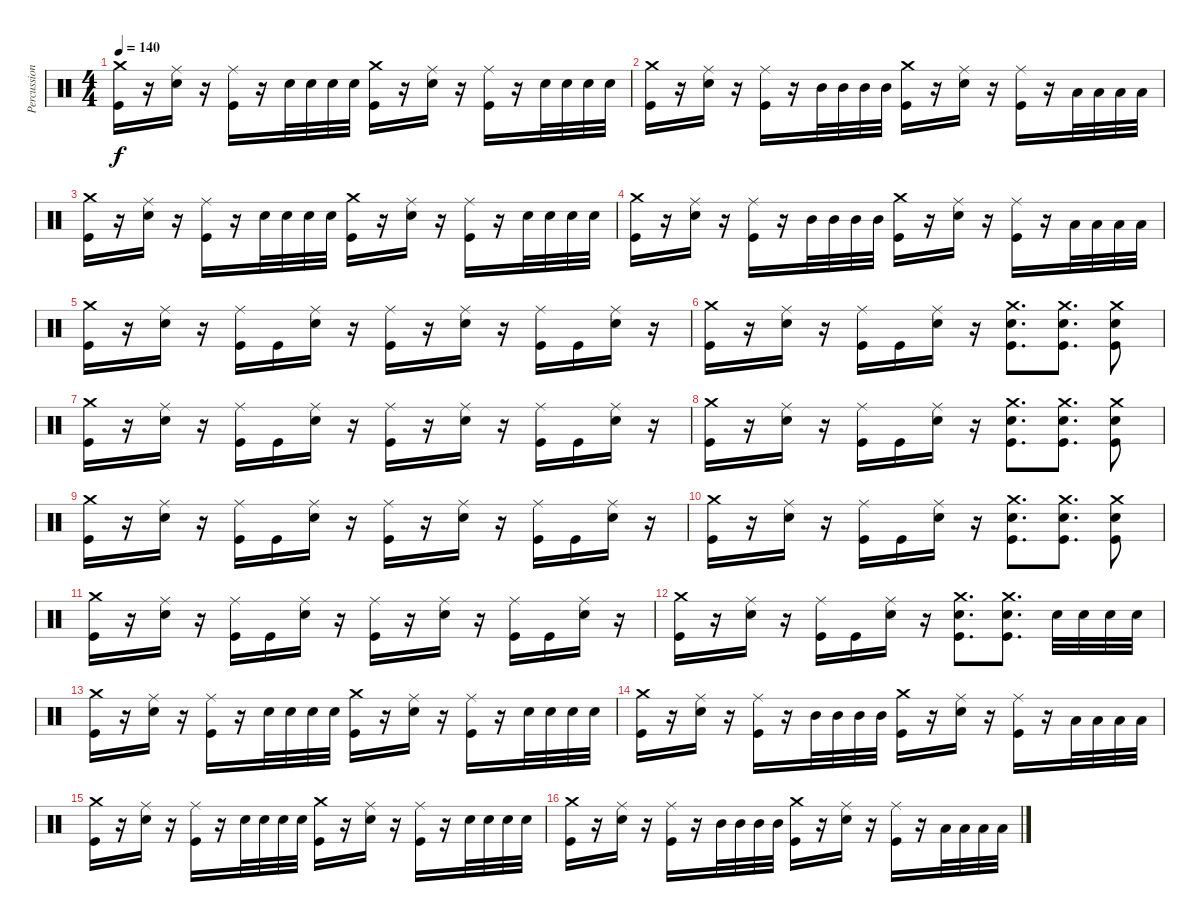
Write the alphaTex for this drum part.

\track ("Percussions( Gearbox )" "Percussion") {instrument percussion}
\staff {score}
\articulation defaults
\ts (4 4)
\tempo 140
\clef neutral
\ks c
("Crash medium (hit)" "Kick (hit)").16{dy f} r.16 ("Ride (middle)" "Snare (hit) 2").16 r.16 ("Ride (middle)" "Kick (hit)").16 r.16 "Snare (hit) 2".32 "Snare (hit) 2".32 "Snare (hit) 2".32 "Snare (hit) 2".32 ("Crash medium (hit)" "Kick (hit)").16 r.16 ("Ride (middle)" "Snare (hit) 2").16 r.16 ("Ride (middle)" "Kick (hit)").16 r.16 "Snare (hit) 2".32 "Snare (hit) 2".32 "Snare (hit) 2".32 "Snare (hit) 2".32 |
("Crash medium (hit)" "Kick (hit)").16 r.16 ("Ride (middle)" "Snare (hit) 2").16 r.16 ("Ride (middle)" "Kick (hit)").16 r.16 "Mid Tom (hit)".32 "Mid Tom (hit)".32 "Mid Tom (hit)".32 "Mid Tom (hit)".32 ("Crash medium (hit)" "Kick (hit)").16 r.16 ("Ride (middle)" "Snare (hit) 2").16 r.16 ("Ride (middle)" "Kick (hit)").16 r.16 "Low Tom (hit)".32 "Low Tom (hit)".32 "Low Tom (hit)".32 "Low Tom (hit)".32 |
("Crash medium (hit)" "Kick (hit)").16 r.16 ("Ride (middle)" "Snare (hit) 2").16 r.16 ("Ride (middle)" "Kick (hit)").16 r.16 "Snare (hit) 2".32 "Snare (hit) 2".32 "Snare (hit) 2".32 "Snare (hit) 2".32 ("Crash medium (hit)" "Kick (hit)").16 r.16 ("Ride (middle)" "Snare (hit) 2").16 r.16 ("Ride (middle)" "Kick (hit)").16 r.16 "Snare (hit) 2".32 "Snare (hit) 2".32 "Snare (hit) 2".32 "Snare (hit) 2".32 |
("Crash medium (hit)" "Kick (hit)").16 r.16 ("Ride (middle)" "Snare (hit) 2").16 r.16 ("Ride (middle)" "Kick (hit)").16 r.16 "Mid Tom (hit)".32 "Mid Tom (hit)".32 "Mid Tom (hit)".32 "Mid Tom (hit)".32 ("Crash medium (hit)" "Kick (hit)").16 r.16 ("Ride (middle)" "Snare (hit) 2").16 r.16 ("Ride (middle)" "Kick (hit)").16 r.16 "Low Tom (hit)".32 "Low Tom (hit)".32 "Low Tom (hit)".32 "Low Tom (hit)".32 |
("Crash medium (hit)" "Kick (hit)").16 r.16 ("Ride (middle)" "Snare (hit) 2").16 r.16 ("Ride (middle)" "Kick (hit)").16 "Kick (hit)".16 ("Ride (middle)" "Snare (hit) 2").16 r.16 ("Ride (middle)" "Kick (hit)").16 r.16 ("Ride (middle)" "Snare (hit) 2").16 r.16 ("Ride (middle)" "Kick (hit)").16 "Kick (hit)".16 ("Ride (middle)" "Snare (hit) 2").16 r.16 |
("Crash medium (hit)" "Kick (hit)").16 r.16 ("Ride (middle)" "Snare (hit) 2").16 r.16 ("Ride (middle)" "Kick (hit)").16 "Kick (hit)".16 ("Ride (middle)" "Snare (hit) 2").16 r.16 ("Crash medium (hit)" "Snare (hit) 2" "Kick (hit)").8{d} ("Crash medium (hit)" "Snare (hit) 2" "Kick (hit)").8{d} ("Crash medium (hit)" "Snare (hit) 2" "Kick (hit)").8 |
("Crash medium (hit)" "Kick (hit)").16 r.16 ("Ride (middle)" "Snare (hit) 2").16 r.16 ("Ride (middle)" "Kick (hit)").16 "Kick (hit)".16 ("Ride (middle)" "Snare (hit) 2").16 r.16 ("Ride (middle)" "Kick (hit)").16 r.16 ("Ride (middle)" "Snare (hit) 2").16 r.16 ("Ride (middle)" "Kick (hit)").16 "Kick (hit)".16 ("Ride (middle)" "Snare (hit) 2").16 r.16 |
("Crash medium (hit)" "Kick (hit)").16 r.16 ("Ride (middle)" "Snare (hit) 2").16 r.16 ("Ride (middle)" "Kick (hit)").16 "Kick (hit)".16 ("Ride (middle)" "Snare (hit) 2").16 r.16 ("Crash medium (hit)" "Snare (hit) 2" "Kick (hit)").8{d} ("Crash medium (hit)" "Snare (hit) 2" "Kick (hit)").8{d} ("Crash medium (hit)" "Snare (hit) 2" "Kick (hit)").8 |
("Crash medium (hit)" "Kick (hit)").16 r.16 ("Ride (middle)" "Snare (hit) 2").16 r.16 ("Ride (middle)" "Kick (hit)").16 "Kick (hit)".16 ("Ride (middle)" "Snare (hit) 2").16 r.16 ("Ride (middle)" "Kick (hit)").16 r.16 ("Ride (middle)" "Snare (hit) 2").16 r.16 ("Ride (middle)" "Kick (hit)").16 "Kick (hit)".16 ("Ride (middle)" "Snare (hit) 2").16 r.16 |
("Crash medium (hit)" "Kick (hit)").16 r.16 ("Ride (middle)" "Snare (hit) 2").16 r.16 ("Ride (middle)" "Kick (hit)").16 "Kick (hit)".16 ("Ride (middle)" "Snare (hit) 2").16 r.16 ("Crash medium (hit)" "Snare (hit) 2" "Kick (hit)").8{d} ("Crash medium (hit)" "Snare (hit) 2" "Kick (hit)").8{d} ("Crash medium (hit)" "Snare (hit) 2" "Kick (hit)").8 |
("Crash medium (hit)" "Kick (hit)").16 r.16 ("Ride (middle)" "Snare (hit) 2").16 r.16 ("Ride (middle)" "Kick (hit)").16 "Kick (hit)".16 ("Ride (middle)" "Snare (hit) 2").16 r.16 ("Ride (middle)" "Kick (hit)").16 r.16 ("Ride (middle)" "Snare (hit) 2").16 r.16 ("Ride (middle)" "Kick (hit)").16 "Kick (hit)".16 ("Ride (middle)" "Snare (hit) 2").16 r.16 |
("Crash medium (hit)" "Kick (hit)").16 r.16 ("Ride (middle)" "Snare (hit) 2").16 r.16 ("Ride (middle)" "Kick (hit)").16 "Kick (hit)".16 ("Ride (middle)" "Snare (hit) 2").16 r.16 ("Crash medium (hit)" "Snare (hit) 2" "Kick (hit)").8{d} ("Crash medium (hit)" "Snare (hit) 2" "Kick (hit)").8{d} "Snare (hit) 2".32 "Snare (hit) 2".32 "Snare (hit) 2".32 "Snare (hit) 2".32 |
("Crash medium (hit)" "Kick (hit)").16 r.16 ("Ride (middle)" "Snare (hit) 2").16 r.16 ("Ride (middle)" "Kick (hit)").16 r.16 "Snare (hit) 2".32 "Snare (hit) 2".32 "Snare (hit) 2".32 "Snare (hit) 2".32 ("Crash medium (hit)" "Kick (hit)").16 r.16 ("Ride (middle)" "Snare (hit) 2").16 r.16 ("Ride (middle)" "Kick (hit)").16 r.16 "Snare (hit) 2".32 "Snare (hit) 2".32 "Snare (hit) 2".32 "Snare (hit) 2".32 |
("Crash medium (hit)" "Kick (hit)").16 r.16 ("Ride (middle)" "Snare (hit) 2").16 r.16 ("Ride (middle)" "Kick (hit)").16 r.16 "Mid Tom (hit)".32 "Mid Tom (hit)".32 "Mid Tom (hit)".32 "Mid Tom (hit)".32 ("Crash medium (hit)" "Kick (hit)").16 r.16 ("Ride (middle)" "Snare (hit) 2").16 r.16 ("Ride (middle)" "Kick (hit)").16 r.16 "Low Tom (hit)".32 "Low Tom (hit)".32 "Low Tom (hit)".32 "Low Tom (hit)".32 |
("Crash medium (hit)" "Kick (hit)").16 r.16 ("Ride (middle)" "Snare (hit) 2").16 r.16 ("Ride (middle)" "Kick (hit)").16 r.16 "Snare (hit) 2".32 "Snare (hit) 2".32 "Snare (hit) 2".32 "Snare (hit) 2".32 ("Crash medium (hit)" "Kick (hit)").16 r.16 ("Ride (middle)" "Snare (hit) 2").16 r.16 ("Ride (middle)" "Kick (hit)").16 r.16 "Snare (hit) 2".32 "Snare (hit) 2".32 "Snare (hit) 2".32 "Snare (hit) 2".32 |
("Crash medium (hit)" "Kick (hit)").16 r.16 ("Ride (middle)" "Snare (hit) 2").16 r.16 ("Ride (middle)" "Kick (hit)").16 r.16 "Mid Tom (hit)".32 "Mid Tom (hit)".32 "Mid Tom (hit)".32 "Mid Tom (hit)".32 ("Crash medium (hit)" "Kick (hit)").16 r.16 ("Ride (middle)" "Snare (hit) 2").16 r.16 ("Ride (middle)" "Kick (hit)").16 r.16 "Low Tom (hit)".32 "Low Tom (hit)".32 "Low Tom (hit)".32 "Low Tom (hit)".32
